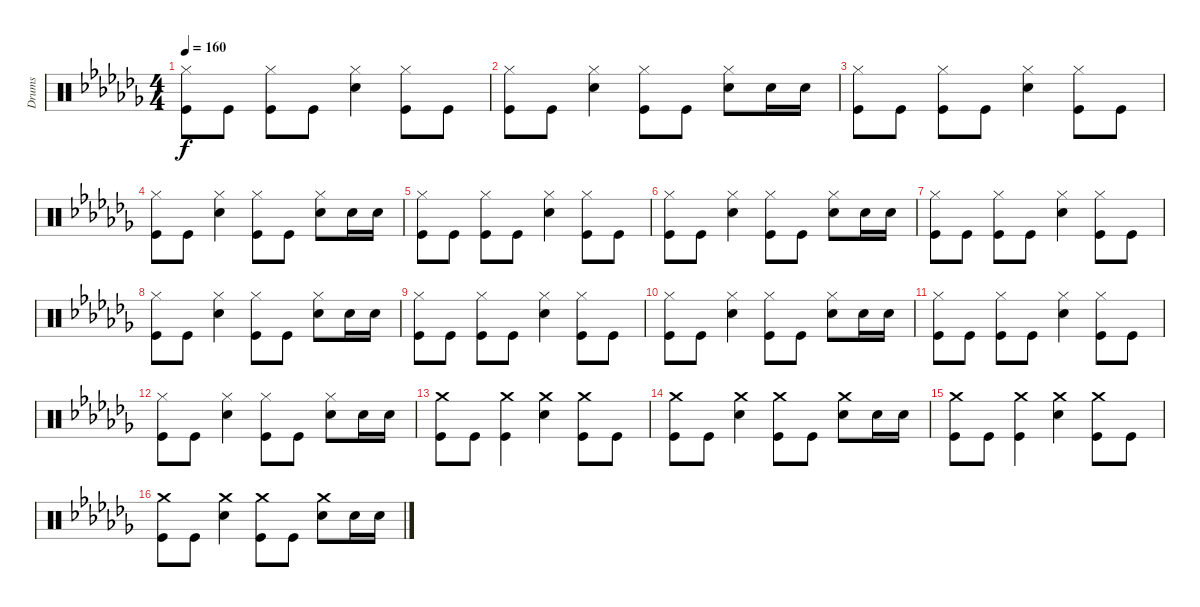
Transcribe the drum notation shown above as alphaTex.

\track ("Drums" "Drums") {instrument percussion}
\staff {score}
\articulation defaults
\ts (4 4)
\tempo 160
\clef neutral
\ks cb
("Hi-Hat (closed)" "Kick (hit)").8{dy f} "Kick (hit)".8 ("Hi-Hat (closed)" "Kick (hit)").8 "Kick (hit)".8 ("Hi-Hat (closed)" "Electric Snare (hit)").4 ("Hi-Hat (closed)" "Kick (hit)").8 "Kick (hit)".8 |
("Hi-Hat (closed)" "Kick (hit)").8 "Kick (hit)".8 ("Hi-Hat (closed)" "Electric Snare (hit)").4 ("Hi-Hat (closed)" "Kick (hit)").8 "Kick (hit)".8 ("Hi-Hat (closed)" "Electric Snare (hit)").8 "Electric Snare (hit)".16 "Electric Snare (hit)".16 |
("Hi-Hat (closed)" "Kick (hit)").8 "Kick (hit)".8 ("Hi-Hat (closed)" "Kick (hit)").8 "Kick (hit)".8 ("Hi-Hat (closed)" "Electric Snare (hit)").4 ("Hi-Hat (closed)" "Kick (hit)").8 "Kick (hit)".8 |
("Hi-Hat (closed)" "Kick (hit)").8 "Kick (hit)".8 ("Hi-Hat (closed)" "Electric Snare (hit)").4 ("Hi-Hat (closed)" "Kick (hit)").8 "Kick (hit)".8 ("Hi-Hat (closed)" "Electric Snare (hit)").8 "Electric Snare (hit)".16 "Electric Snare (hit)".16 |
("Hi-Hat (closed)" "Kick (hit)").8 "Kick (hit)".8 ("Hi-Hat (closed)" "Kick (hit)").8 "Kick (hit)".8 ("Hi-Hat (closed)" "Electric Snare (hit)").4 ("Hi-Hat (closed)" "Kick (hit)").8 "Kick (hit)".8 |
("Hi-Hat (closed)" "Kick (hit)").8 "Kick (hit)".8 ("Hi-Hat (closed)" "Electric Snare (hit)").4 ("Hi-Hat (closed)" "Kick (hit)").8 "Kick (hit)".8 ("Hi-Hat (closed)" "Electric Snare (hit)").8 "Electric Snare (hit)".16 "Electric Snare (hit)".16 |
("Hi-Hat (closed)" "Kick (hit)").8 "Kick (hit)".8 ("Hi-Hat (closed)" "Kick (hit)").8 "Kick (hit)".8 ("Hi-Hat (closed)" "Electric Snare (hit)").4 ("Hi-Hat (closed)" "Kick (hit)").8 "Kick (hit)".8 |
("Hi-Hat (closed)" "Kick (hit)").8 "Kick (hit)".8 ("Hi-Hat (closed)" "Electric Snare (hit)").4 ("Hi-Hat (closed)" "Kick (hit)").8 "Kick (hit)".8 ("Hi-Hat (closed)" "Electric Snare (hit)").8 "Electric Snare (hit)".16 "Electric Snare (hit)".16 |
("Hi-Hat (closed)" "Kick (hit)").8 "Kick (hit)".8 ("Hi-Hat (closed)" "Kick (hit)").8 "Kick (hit)".8 ("Hi-Hat (closed)" "Electric Snare (hit)").4 ("Hi-Hat (closed)" "Kick (hit)").8 "Kick (hit)".8 |
("Hi-Hat (closed)" "Kick (hit)").8 "Kick (hit)".8 ("Hi-Hat (closed)" "Electric Snare (hit)").4 ("Hi-Hat (closed)" "Kick (hit)").8 "Kick (hit)".8 ("Hi-Hat (closed)" "Electric Snare (hit)").8 "Electric Snare (hit)".16 "Electric Snare (hit)".16 |
("Hi-Hat (closed)" "Kick (hit)").8 "Kick (hit)".8 ("Hi-Hat (closed)" "Kick (hit)").8 "Kick (hit)".8 ("Hi-Hat (closed)" "Electric Snare (hit)").4 ("Hi-Hat (closed)" "Kick (hit)").8 "Kick (hit)".8 |
("Hi-Hat (closed)" "Kick (hit)").8 "Kick (hit)".8 ("Hi-Hat (closed)" "Electric Snare (hit)").4 ("Hi-Hat (closed)" "Kick (hit)").8 "Kick (hit)".8 ("Hi-Hat (closed)" "Electric Snare (hit)").8 "Electric Snare (hit)".16 "Electric Snare (hit)".16 |
("Crash medium (hit)" "Kick (hit)").8 "Kick (hit)".8 ("Crash medium (hit)" "Kick (hit)").4 ("Crash medium (hit)" "Electric Snare (hit)").4 ("Crash medium (hit)" "Kick (hit)").8 "Kick (hit)".8 |
("Crash medium (hit)" "Kick (hit)").8 "Kick (hit)".8 ("Crash medium (hit)" "Electric Snare (hit)").4 ("Crash medium (hit)" "Kick (hit)").8 "Kick (hit)".8 ("Crash medium (hit)" "Electric Snare (hit)").8 "Electric Snare (hit)".16 "Electric Snare (hit)".16 |
("Crash medium (hit)" "Kick (hit)").8 "Kick (hit)".8 ("Crash medium (hit)" "Kick (hit)").4 ("Crash medium (hit)" "Electric Snare (hit)").4 ("Crash medium (hit)" "Kick (hit)").8 "Kick (hit)".8 |
("Crash medium (hit)" "Kick (hit)").8 "Kick (hit)".8 ("Crash medium (hit)" "Electric Snare (hit)").4 ("Crash medium (hit)" "Kick (hit)").8 "Kick (hit)".8 ("Crash medium (hit)" "Electric Snare (hit)").8 "Electric Snare (hit)".16 "Electric Snare (hit)".16
